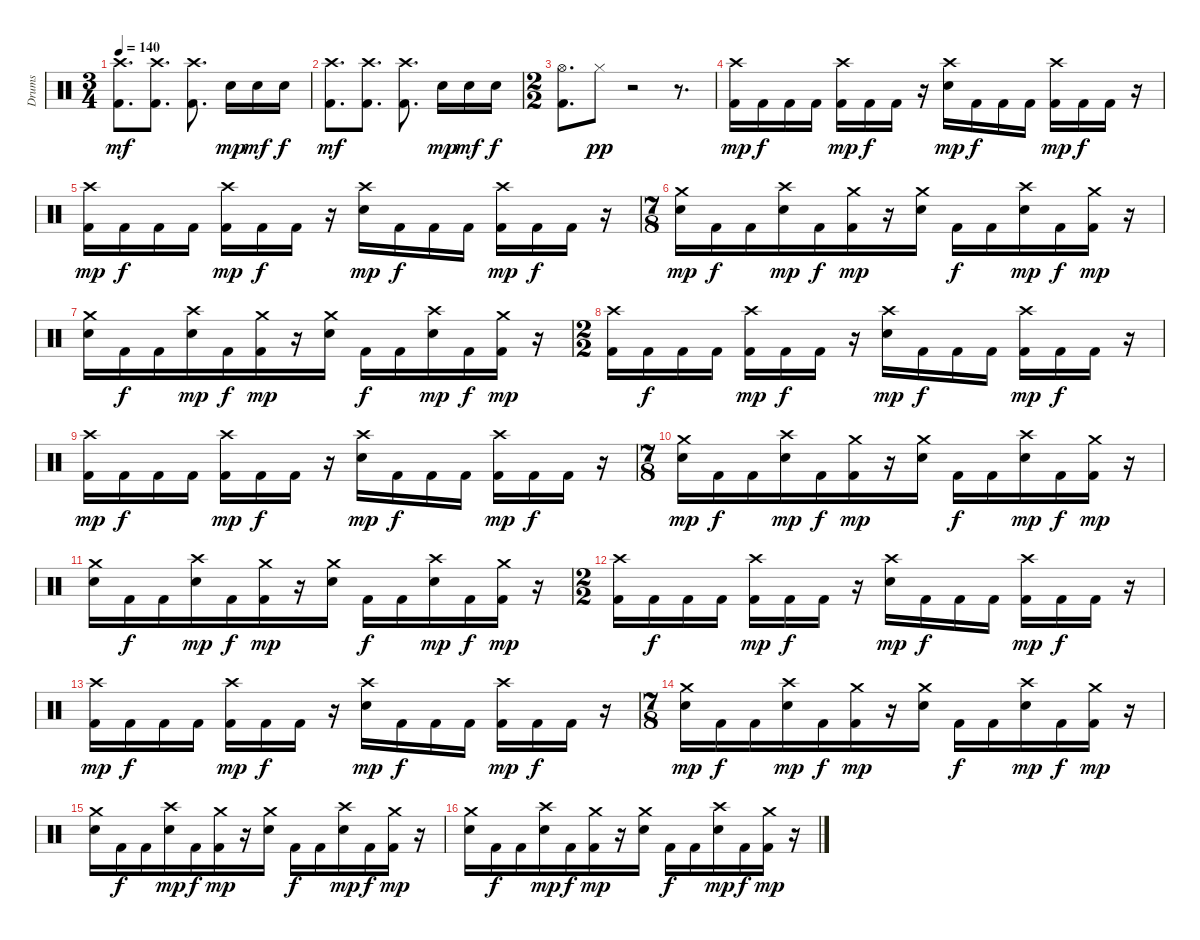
\track ("Drums" "Drums") {instrument percussion}
\staff {score}
\articulation defaults
\ts (3 4)
\tempo 140
\clef neutral
\ks c
("Crash high (hit)" "Kick (hit) 2").8{d dy mf} ("Crash high (hit)" "Kick (hit) 2").8{d} ("Crash high (hit)" "Kick (hit) 2").8{d} "Snare (hit) 2".16{dy mp} "Snare (hit) 2".16{dy mf} "Snare (hit) 2".16{dy f} |
("Crash high (hit)" "Kick (hit) 2").8{d dy mf} ("Crash high (hit)" "Kick (hit) 2").8{d} ("Crash high (hit)" "Kick (hit) 2").8{d} "Snare (hit) 2".16{dy mp} "Snare (hit) 2".16{dy mf} "Snare (hit) 2".16{dy f} |
\ts (2 2)
("Hi-Hat (open)" "Kick (hit) 2").8{d} "Hi-Hat (closed)".8{dy pp} r.2 r.8{d} |
("Crash high (hit)" "Kick (hit) 2").16{dy mp} "Kick (hit) 2".16{dy f} "Kick (hit) 2".16 "Kick (hit) 2".16 ("Crash high (hit)" "Kick (hit) 2").16{dy mp} "Kick (hit) 2".16{dy f} "Kick (hit) 2".16 r.16 ("Crash high (hit)" "Snare (hit) 2").16{dy mp} "Kick (hit) 2".16{dy f} "Kick (hit) 2".16 "Kick (hit) 2".16 ("Crash high (hit)" "Kick (hit) 2").16{dy mp} "Kick (hit) 2".16{dy f} "Kick (hit) 2".16 r.16 |
("Crash high (hit)" "Kick (hit) 2").16{dy mp} "Kick (hit) 2".16{dy f} "Kick (hit) 2".16 "Kick (hit) 2".16 ("Crash high (hit)" "Kick (hit) 2").16{dy mp} "Kick (hit) 2".16{dy f} "Kick (hit) 2".16 r.16 ("Crash high (hit)" "Snare (hit) 2").16{dy mp} "Kick (hit) 2".16{dy f} "Kick (hit) 2".16 "Kick (hit) 2".16 ("Crash high (hit)" "Kick (hit) 2").16{dy mp} "Kick (hit) 2".16{dy f} "Kick (hit) 2".16 r.16 |
\ts (7 8)
("Crash medium (hit)" "Snare (hit) 2").16{dy mp} "Kick (hit) 2".16{dy f} "Kick (hit) 2".16 ("Crash high (hit)" "Snare (hit) 2").16{dy mp} "Kick (hit) 2".16{dy f} ("Crash medium (hit)" "Kick (hit) 2").16{dy mp} r.16 ("Crash medium (hit)" "Snare (hit) 2").16 "Kick (hit) 2".16{dy f} "Kick (hit) 2".16 ("Crash high (hit)" "Snare (hit) 2").16{dy mp} "Kick (hit) 2".16{dy f} ("Crash medium (hit)" "Kick (hit) 2").16{dy mp} r.16 |
("Crash medium (hit)" "Snare (hit) 2").16 "Kick (hit) 2".16{dy f} "Kick (hit) 2".16 ("Crash high (hit)" "Snare (hit) 2").16{dy mp} "Kick (hit) 2".16{dy f} ("Crash medium (hit)" "Kick (hit) 2").16{dy mp} r.16 ("Crash medium (hit)" "Snare (hit) 2").16 "Kick (hit) 2".16{dy f} "Kick (hit) 2".16 ("Crash high (hit)" "Snare (hit) 2").16{dy mp} "Kick (hit) 2".16{dy f} ("Crash medium (hit)" "Kick (hit) 2").16{dy mp} r.16 |
\ts (2 2)
("Crash high (hit)" "Kick (hit) 2").16 "Kick (hit) 2".16{dy f} "Kick (hit) 2".16 "Kick (hit) 2".16 ("Crash high (hit)" "Kick (hit) 2").16{dy mp} "Kick (hit) 2".16{dy f} "Kick (hit) 2".16 r.16 ("Crash high (hit)" "Snare (hit) 2").16{dy mp} "Kick (hit) 2".16{dy f} "Kick (hit) 2".16 "Kick (hit) 2".16 ("Crash high (hit)" "Kick (hit) 2").16{dy mp} "Kick (hit) 2".16{dy f} "Kick (hit) 2".16 r.16 |
("Crash high (hit)" "Kick (hit) 2").16{dy mp} "Kick (hit) 2".16{dy f} "Kick (hit) 2".16 "Kick (hit) 2".16 ("Crash high (hit)" "Kick (hit) 2").16{dy mp} "Kick (hit) 2".16{dy f} "Kick (hit) 2".16 r.16 ("Crash high (hit)" "Snare (hit) 2").16{dy mp} "Kick (hit) 2".16{dy f} "Kick (hit) 2".16 "Kick (hit) 2".16 ("Crash high (hit)" "Kick (hit) 2").16{dy mp} "Kick (hit) 2".16{dy f} "Kick (hit) 2".16 r.16 |
\ts (7 8)
("Crash medium (hit)" "Snare (hit) 2").16{dy mp} "Kick (hit) 2".16{dy f} "Kick (hit) 2".16 ("Crash high (hit)" "Snare (hit) 2").16{dy mp} "Kick (hit) 2".16{dy f} ("Crash medium (hit)" "Kick (hit) 2").16{dy mp} r.16 ("Crash medium (hit)" "Snare (hit) 2").16 "Kick (hit) 2".16{dy f} "Kick (hit) 2".16 ("Crash high (hit)" "Snare (hit) 2").16{dy mp} "Kick (hit) 2".16{dy f} ("Crash medium (hit)" "Kick (hit) 2").16{dy mp} r.16 |
("Crash medium (hit)" "Snare (hit) 2").16 "Kick (hit) 2".16{dy f} "Kick (hit) 2".16 ("Crash high (hit)" "Snare (hit) 2").16{dy mp} "Kick (hit) 2".16{dy f} ("Crash medium (hit)" "Kick (hit) 2").16{dy mp} r.16 ("Crash medium (hit)" "Snare (hit) 2").16 "Kick (hit) 2".16{dy f} "Kick (hit) 2".16 ("Crash high (hit)" "Snare (hit) 2").16{dy mp} "Kick (hit) 2".16{dy f} ("Crash medium (hit)" "Kick (hit) 2").16{dy mp} r.16 |
\ts (2 2)
("Crash high (hit)" "Kick (hit) 2").16 "Kick (hit) 2".16{dy f} "Kick (hit) 2".16 "Kick (hit) 2".16 ("Crash high (hit)" "Kick (hit) 2").16{dy mp} "Kick (hit) 2".16{dy f} "Kick (hit) 2".16 r.16 ("Crash high (hit)" "Snare (hit) 2").16{dy mp} "Kick (hit) 2".16{dy f} "Kick (hit) 2".16 "Kick (hit) 2".16 ("Crash high (hit)" "Kick (hit) 2").16{dy mp} "Kick (hit) 2".16{dy f} "Kick (hit) 2".16 r.16 |
("Crash high (hit)" "Kick (hit) 2").16{dy mp} "Kick (hit) 2".16{dy f} "Kick (hit) 2".16 "Kick (hit) 2".16 ("Crash high (hit)" "Kick (hit) 2").16{dy mp} "Kick (hit) 2".16{dy f} "Kick (hit) 2".16 r.16 ("Crash high (hit)" "Snare (hit) 2").16{dy mp} "Kick (hit) 2".16{dy f} "Kick (hit) 2".16 "Kick (hit) 2".16 ("Crash high (hit)" "Kick (hit) 2").16{dy mp} "Kick (hit) 2".16{dy f} "Kick (hit) 2".16 r.16 |
\ts (7 8)
("Crash medium (hit)" "Snare (hit) 2").16{dy mp} "Kick (hit) 2".16{dy f} "Kick (hit) 2".16 ("Crash high (hit)" "Snare (hit) 2").16{dy mp} "Kick (hit) 2".16{dy f} ("Crash medium (hit)" "Kick (hit) 2").16{dy mp} r.16 ("Crash medium (hit)" "Snare (hit) 2").16 "Kick (hit) 2".16{dy f} "Kick (hit) 2".16 ("Crash high (hit)" "Snare (hit) 2").16{dy mp} "Kick (hit) 2".16{dy f} ("Crash medium (hit)" "Kick (hit) 2").16{dy mp} r.16 |
("Crash medium (hit)" "Snare (hit) 2").16 "Kick (hit) 2".16{dy f} "Kick (hit) 2".16 ("Crash high (hit)" "Snare (hit) 2").16{dy mp} "Kick (hit) 2".16{dy f} ("Crash medium (hit)" "Kick (hit) 2").16{dy mp} r.16 ("Crash medium (hit)" "Snare (hit) 2").16 "Kick (hit) 2".16{dy f} "Kick (hit) 2".16 ("Crash high (hit)" "Snare (hit) 2").16{dy mp} "Kick (hit) 2".16{dy f} ("Crash medium (hit)" "Kick (hit) 2").16{dy mp} r.16 |
("Crash medium (hit)" "Snare (hit) 2").16 "Kick (hit) 2".16{dy f} "Kick (hit) 2".16 ("Crash high (hit)" "Snare (hit) 2").16{dy mp} "Kick (hit) 2".16{dy f} ("Crash medium (hit)" "Kick (hit) 2").16{dy mp} r.16 ("Crash medium (hit)" "Snare (hit) 2").16 "Kick (hit) 2".16{dy f} "Kick (hit) 2".16 ("Crash high (hit)" "Snare (hit) 2").16{dy mp} "Kick (hit) 2".16{dy f} ("Crash medium (hit)" "Kick (hit) 2").16{dy mp} r.16
